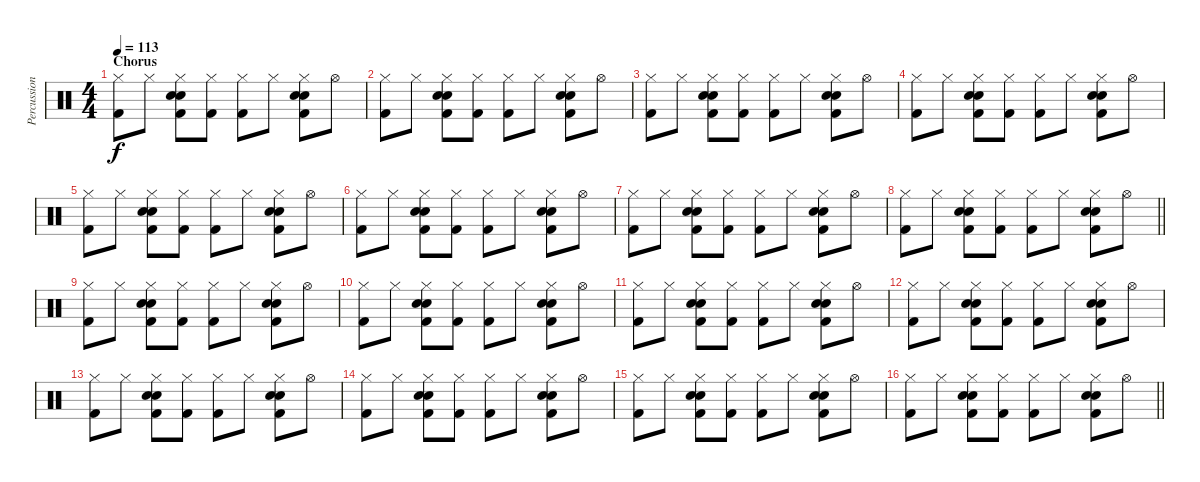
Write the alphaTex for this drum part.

\track ("Percussion" "Percussion") {instrument percussion}
\staff {score}
\articulation defaults
\ts (4 4)
\section ("" "Chorus")
\tempo 113
\clef neutral
\ks c
("Hi-Hat (closed)" "Kick (hit) 2").8{dy f} "Hi-Hat (closed)".8 ("Hand Clap (hit)" "Hi-Hat (closed)" "Electric Snare (hit)" "Kick (hit) 2").8 ("Hi-Hat (closed)" "Kick (hit) 2").8 ("Hi-Hat (closed)" "Kick (hit) 2").8 "Hi-Hat (closed)".8 ("Hand Clap (hit)" "Hi-Hat (closed)" "Electric Snare (hit)" "Kick (hit) 2").8 "Hi-Hat (open)".8 |
("Hi-Hat (closed)" "Kick (hit) 2").8 "Hi-Hat (closed)".8 ("Hand Clap (hit)" "Hi-Hat (closed)" "Electric Snare (hit)" "Kick (hit) 2").8 ("Hi-Hat (closed)" "Kick (hit) 2").8 ("Hi-Hat (closed)" "Kick (hit) 2").8 "Hi-Hat (closed)".8 ("Hand Clap (hit)" "Hi-Hat (closed)" "Electric Snare (hit)" "Kick (hit) 2").8 "Hi-Hat (open)".8 |
("Hi-Hat (closed)" "Kick (hit) 2").8 "Hi-Hat (closed)".8 ("Hand Clap (hit)" "Hi-Hat (closed)" "Electric Snare (hit)" "Kick (hit) 2").8 ("Hi-Hat (closed)" "Kick (hit) 2").8 ("Hi-Hat (closed)" "Kick (hit) 2").8 "Hi-Hat (closed)".8 ("Hand Clap (hit)" "Hi-Hat (closed)" "Electric Snare (hit)" "Kick (hit) 2").8 "Hi-Hat (open)".8 |
("Hi-Hat (closed)" "Kick (hit) 2").8 "Hi-Hat (closed)".8 ("Hand Clap (hit)" "Hi-Hat (closed)" "Electric Snare (hit)" "Kick (hit) 2").8 ("Hi-Hat (closed)" "Kick (hit) 2").8 ("Hi-Hat (closed)" "Kick (hit) 2").8 "Hi-Hat (closed)".8 ("Hand Clap (hit)" "Hi-Hat (closed)" "Electric Snare (hit)" "Kick (hit) 2").8 "Hi-Hat (open)".8 |
("Hi-Hat (closed)" "Kick (hit) 2").8 "Hi-Hat (closed)".8 ("Hand Clap (hit)" "Hi-Hat (closed)" "Electric Snare (hit)" "Kick (hit) 2").8 ("Hi-Hat (closed)" "Kick (hit) 2").8 ("Hi-Hat (closed)" "Kick (hit) 2").8 "Hi-Hat (closed)".8 ("Hand Clap (hit)" "Hi-Hat (closed)" "Electric Snare (hit)" "Kick (hit) 2").8 "Hi-Hat (open)".8 |
("Hi-Hat (closed)" "Kick (hit) 2").8 "Hi-Hat (closed)".8 ("Hand Clap (hit)" "Hi-Hat (closed)" "Electric Snare (hit)" "Kick (hit) 2").8 ("Hi-Hat (closed)" "Kick (hit) 2").8 ("Hi-Hat (closed)" "Kick (hit) 2").8 "Hi-Hat (closed)".8 ("Hand Clap (hit)" "Hi-Hat (closed)" "Electric Snare (hit)" "Kick (hit) 2").8 "Hi-Hat (open)".8 |
("Hi-Hat (closed)" "Kick (hit) 2").8 "Hi-Hat (closed)".8 ("Hand Clap (hit)" "Hi-Hat (closed)" "Electric Snare (hit)" "Kick (hit) 2").8 ("Hi-Hat (closed)" "Kick (hit) 2").8 ("Hi-Hat (closed)" "Kick (hit) 2").8 "Hi-Hat (closed)".8 ("Hand Clap (hit)" "Hi-Hat (closed)" "Electric Snare (hit)" "Kick (hit) 2").8 "Hi-Hat (open)".8 |
\barLineRight lightlight
("Hi-Hat (closed)" "Kick (hit) 2").8 "Hi-Hat (closed)".8 ("Hand Clap (hit)" "Hi-Hat (closed)" "Electric Snare (hit)" "Kick (hit) 2").8 ("Hi-Hat (closed)" "Kick (hit) 2").8 ("Hi-Hat (closed)" "Kick (hit) 2").8 "Hi-Hat (closed)".8 ("Hand Clap (hit)" "Hi-Hat (closed)" "Electric Snare (hit)" "Kick (hit) 2").8 "Hi-Hat (open)".8 |
("Hi-Hat (closed)" "Kick (hit) 2").8 "Hi-Hat (closed)".8 ("Hand Clap (hit)" "Hi-Hat (closed)" "Electric Snare (hit)" "Kick (hit) 2").8 ("Hi-Hat (closed)" "Kick (hit) 2").8 ("Hi-Hat (closed)" "Kick (hit) 2").8 "Hi-Hat (closed)".8 ("Hand Clap (hit)" "Hi-Hat (closed)" "Electric Snare (hit)" "Kick (hit) 2").8 "Hi-Hat (open)".8 |
("Hi-Hat (closed)" "Kick (hit) 2").8 "Hi-Hat (closed)".8 ("Hand Clap (hit)" "Hi-Hat (closed)" "Electric Snare (hit)" "Kick (hit) 2").8 ("Hi-Hat (closed)" "Kick (hit) 2").8 ("Hi-Hat (closed)" "Kick (hit) 2").8 "Hi-Hat (closed)".8 ("Hand Clap (hit)" "Hi-Hat (closed)" "Electric Snare (hit)" "Kick (hit) 2").8 "Hi-Hat (open)".8 |
("Hi-Hat (closed)" "Kick (hit) 2").8 "Hi-Hat (closed)".8 ("Hand Clap (hit)" "Hi-Hat (closed)" "Electric Snare (hit)" "Kick (hit) 2").8 ("Hi-Hat (closed)" "Kick (hit) 2").8 ("Hi-Hat (closed)" "Kick (hit) 2").8 "Hi-Hat (closed)".8 ("Hand Clap (hit)" "Hi-Hat (closed)" "Electric Snare (hit)" "Kick (hit) 2").8 "Hi-Hat (open)".8 |
("Hi-Hat (closed)" "Kick (hit) 2").8 "Hi-Hat (closed)".8 ("Hand Clap (hit)" "Hi-Hat (closed)" "Electric Snare (hit)" "Kick (hit) 2").8 ("Hi-Hat (closed)" "Kick (hit) 2").8 ("Hi-Hat (closed)" "Kick (hit) 2").8 "Hi-Hat (closed)".8 ("Hand Clap (hit)" "Hi-Hat (closed)" "Electric Snare (hit)" "Kick (hit) 2").8 "Hi-Hat (open)".8 |
("Hi-Hat (closed)" "Kick (hit) 2").8 "Hi-Hat (closed)".8 ("Hand Clap (hit)" "Hi-Hat (closed)" "Electric Snare (hit)" "Kick (hit) 2").8 ("Hi-Hat (closed)" "Kick (hit) 2").8 ("Hi-Hat (closed)" "Kick (hit) 2").8 "Hi-Hat (closed)".8 ("Hand Clap (hit)" "Hi-Hat (closed)" "Electric Snare (hit)" "Kick (hit) 2").8 "Hi-Hat (open)".8 |
("Hi-Hat (closed)" "Kick (hit) 2").8 "Hi-Hat (closed)".8 ("Hand Clap (hit)" "Hi-Hat (closed)" "Electric Snare (hit)" "Kick (hit) 2").8 ("Hi-Hat (closed)" "Kick (hit) 2").8 ("Hi-Hat (closed)" "Kick (hit) 2").8 "Hi-Hat (closed)".8 ("Hand Clap (hit)" "Hi-Hat (closed)" "Electric Snare (hit)" "Kick (hit) 2").8 "Hi-Hat (open)".8 |
("Hi-Hat (closed)" "Kick (hit) 2").8 "Hi-Hat (closed)".8 ("Hand Clap (hit)" "Hi-Hat (closed)" "Electric Snare (hit)" "Kick (hit) 2").8 ("Hi-Hat (closed)" "Kick (hit) 2").8 ("Hi-Hat (closed)" "Kick (hit) 2").8 "Hi-Hat (closed)".8 ("Hand Clap (hit)" "Hi-Hat (closed)" "Electric Snare (hit)" "Kick (hit) 2").8 "Hi-Hat (open)".8 |
\barLineRight lightlight
("Hi-Hat (closed)" "Kick (hit) 2").8 "Hi-Hat (closed)".8 ("Hand Clap (hit)" "Hi-Hat (closed)" "Electric Snare (hit)" "Kick (hit) 2").8 ("Hi-Hat (closed)" "Kick (hit) 2").8 ("Hi-Hat (closed)" "Kick (hit) 2").8 "Hi-Hat (closed)".8 ("Hand Clap (hit)" "Hi-Hat (closed)" "Electric Snare (hit)" "Kick (hit) 2").8 "Hi-Hat (open)".8
